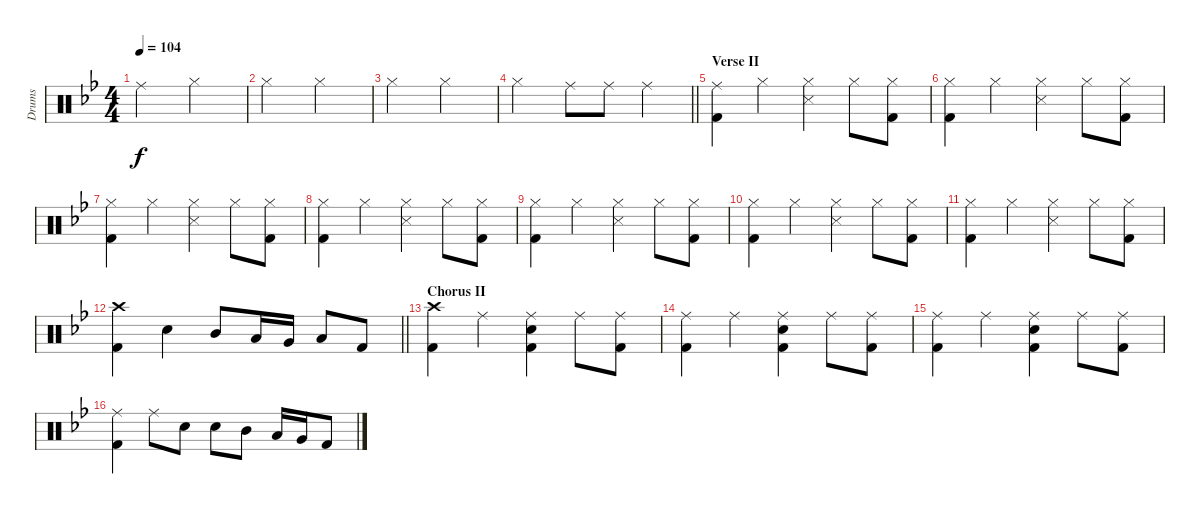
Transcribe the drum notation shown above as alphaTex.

\track ("Drums" "Drums") {instrument percussion}
\staff {score}
\articulation defaults
\ts (4 4)
\tempo 104
\clef neutral
\ks bb "Ride (middle)".2{dy f} "Hi-Hat (closed)".2
|
"Hi-Hat (closed)".2 "Hi-Hat (closed)".2 |
"Hi-Hat (closed)".2 "Hi-Hat (closed)".2 |
\barLineRight lightlight "Hi-Hat (closed)".2 "Ride (middle)".8 "Ride (middle)".8 "Ride (middle)".4
|
\section ("" "Verse II")
("Ride (middle)" "Kick (hit) 2").4 "Hi-Hat (closed)".4 ("Hi-Hat (closed)" "Snare (side stick) 3").4 "Hi-Hat (closed)".8 ("Hi-Hat (closed)" "Kick (hit) 2").8 |
("Hi-Hat (closed)" "Kick (hit) 2").4 "Hi-Hat (closed)".4 ("Hi-Hat (closed)" "Snare (side stick) 3").4 "Hi-Hat (closed)".8 ("Hi-Hat (closed)" "Kick (hit) 2").8 |
("Hi-Hat (closed)" "Kick (hit) 2").4 "Hi-Hat (closed)".4 ("Hi-Hat (closed)" "Snare (side stick) 3").4 "Hi-Hat (closed)".8 ("Hi-Hat (closed)" "Kick (hit) 2").8 |
("Hi-Hat (closed)" "Kick (hit) 2").4 "Hi-Hat (closed)".4 ("Hi-Hat (closed)" "Snare (side stick) 3").4 "Hi-Hat (closed)".8 ("Hi-Hat (closed)" "Kick (hit) 2").8 |
("Hi-Hat (closed)" "Kick (hit) 2").4 "Hi-Hat (closed)".4 ("Hi-Hat (closed)" "Snare (side stick) 3").4 "Hi-Hat (closed)".8 ("Hi-Hat (closed)" "Kick (hit) 2").8 |
("Hi-Hat (closed)" "Kick (hit) 2").4 "Hi-Hat (closed)".4 ("Hi-Hat (closed)" "Snare (side stick) 3").4 "Hi-Hat (closed)".8 ("Hi-Hat (closed)" "Kick (hit) 2").8 |
("Hi-Hat (closed)" "Kick (hit) 2").4 "Hi-Hat (closed)".4 ("Hi-Hat (closed)" "Snare (side stick) 3").4 "Hi-Hat (closed)".8 ("Hi-Hat (closed)" "Kick (hit) 2").8 |
\barLineRight lightlight
("Crash high (hit)" "Kick (hit) 2").4 "Snare (hit) 2".4 "Mid Tom (hit)".8 "Low Tom (hit)".16 "Very Low Tom (hit)".16 "Low Floor Tom (hit)".8 "Kick (hit) 2".8 |
\section ("" "Chorus II")
("Crash high (hit)" "Kick (hit) 2").4 "Ride (middle)".4 ("Ride (middle)" "Snare (hit) 2" "Kick (hit) 2").4 "Ride (middle)".8 ("Ride (middle)" "Kick (hit) 2").8 |
("Ride (middle)" "Kick (hit) 2").4 "Ride (middle)".4 ("Ride (middle)" "Snare (hit) 2" "Kick (hit) 2").4 "Ride (middle)".8 ("Ride (middle)" "Kick (hit) 2").8 |
("Ride (middle)" "Kick (hit) 2").4 "Ride (middle)".4 ("Ride (middle)" "Snare (hit) 2" "Kick (hit) 2").4 "Ride (middle)".8 ("Ride (middle)" "Kick (hit) 2").8 |
("Ride (middle)" "Kick (hit) 2").4 "Ride (middle)".8 "Snare (hit) 2".8 "Snare (hit) 2".8 "Mid Tom (hit)".8 "Low Tom (hit)".16 "Very Low Tom (hit)".16 "Kick (hit) 2".8
